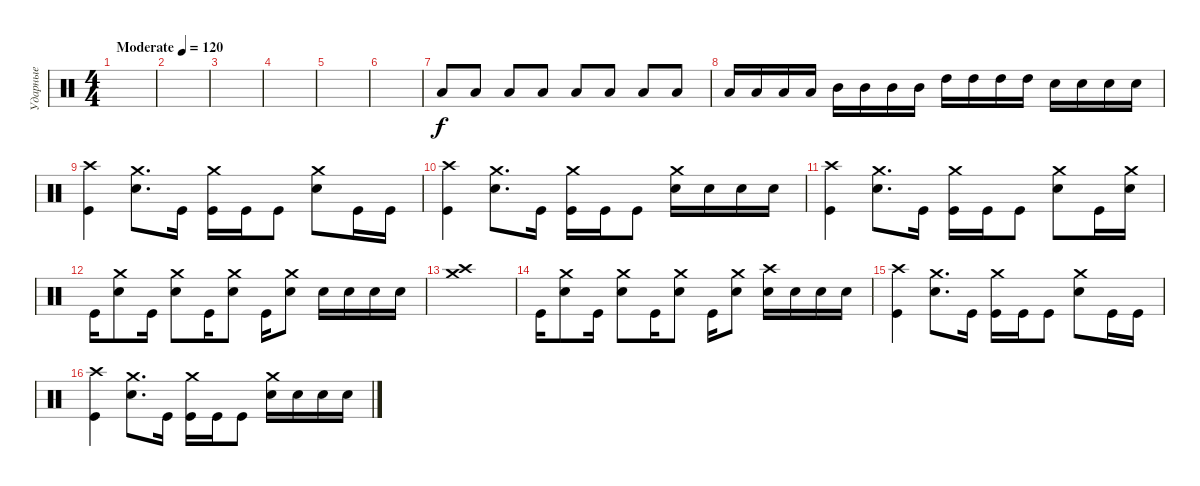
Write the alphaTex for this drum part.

\track ("Ударные" "Ударные") {instrument percussion}
\staff {score}
\articulation defaults
\ts (4 4)
\tempo (120 "Moderate")
\clef neutral
\ks c
|
|
|
|
|
|
"Low Tom (hit)".8 "Low Tom (hit)".8 "Low Tom (hit)".8 "Low Tom (hit)".8 "Low Tom (hit)".8 "Low Tom (hit)".8 "Low Tom (hit)".8 "Low Tom (hit)".8 |
"Low Tom (hit)".16 "Low Tom (hit)".16 "Low Tom (hit)".16 "Low Tom (hit)".16 "Mid Tom (hit)".16 "Mid Tom (hit)".16 "Mid Tom (hit)".16 "Mid Tom (hit)".16 "High Tom (hit)".16 "High Tom (hit)".16 "High Tom (hit)".16 "High Tom (hit)".16 "Snare (hit) 2".16 "Snare (hit) 2".16 "Snare (hit) 2".16 "Snare (hit) 2".16 |
("Kick (hit)" "Crash high (hit)").4 ("Snare (hit) 2" "Crash medium (hit)").8{d} "Kick (hit)".16 ("Kick (hit)" "Crash medium (hit)").16 "Kick (hit)".16 "Kick (hit)".8 ("Snare (hit) 2" "Crash medium (hit)").8 "Kick (hit)".16 "Kick (hit)".16 |
("Kick (hit)" "Crash high (hit)").4 ("Snare (hit) 2" "Crash medium (hit)").8{d} "Kick (hit)".16 ("Kick (hit)" "Crash medium (hit)").16 "Kick (hit)".16 "Kick (hit)".8 ("Snare (hit) 2" "Crash medium (hit)").16 "Snare (hit) 2".16 "Snare (hit) 2".16 "Snare (hit) 2".16 |
("Kick (hit)" "Crash high (hit)").4 ("Snare (hit) 2" "Crash medium (hit)").8{d} "Kick (hit)".16 ("Kick (hit)" "Crash medium (hit)").16 "Kick (hit)".16 "Kick (hit)".8 ("Snare (hit) 2" "Crash medium (hit)").8 "Kick (hit)".16 ("Snare (hit) 2" "Crash medium (hit)").16 |
"Kick (hit)".16 ("Snare (hit) 2" "Crash medium (hit)").8 "Kick (hit)".16 ("Snare (hit) 2" "Crash medium (hit)").8 "Kick (hit)".16 ("Snare (hit) 2" "Crash medium (hit)").8 "Kick (hit)".16 ("Snare (hit) 2" "Crash medium (hit)").8 "Snare (hit) 2".16 "Snare (hit) 2".16 "Snare (hit) 2".16 "Snare (hit) 2".16 |
("Crash medium (hit)" "Crash high (hit)").1 |
"Kick (hit)".16 ("Snare (hit) 2" "Crash medium (hit)").8 "Kick (hit)".16 ("Snare (hit) 2" "Crash medium (hit)").8 "Kick (hit)".16 ("Snare (hit) 2" "Crash medium (hit)").8 "Kick (hit)".16 ("Snare (hit) 2" "Crash medium (hit)").8 ("Snare (hit) 2" "Crash high (hit)").16 "Snare (hit) 2".16 "Snare (hit) 2".16 "Snare (hit) 2".16 |
("Kick (hit)" "Crash high (hit)").4 ("Snare (hit) 2" "Crash medium (hit)").8{d} "Kick (hit)".16 ("Kick (hit)" "Crash medium (hit)").16 "Kick (hit)".16 "Kick (hit)".8 ("Snare (hit) 2" "Crash medium (hit)").8 "Kick (hit)".16 "Kick (hit)".16 |
("Kick (hit)" "Crash high (hit)").4 ("Snare (hit) 2" "Crash medium (hit)").8{d} "Kick (hit)".16 ("Kick (hit)" "Crash medium (hit)").16 "Kick (hit)".16 "Kick (hit)".8 ("Snare (hit) 2" "Crash medium (hit)").16 "Snare (hit) 2".16 "Snare (hit) 2".16 "Snare (hit) 2".16
